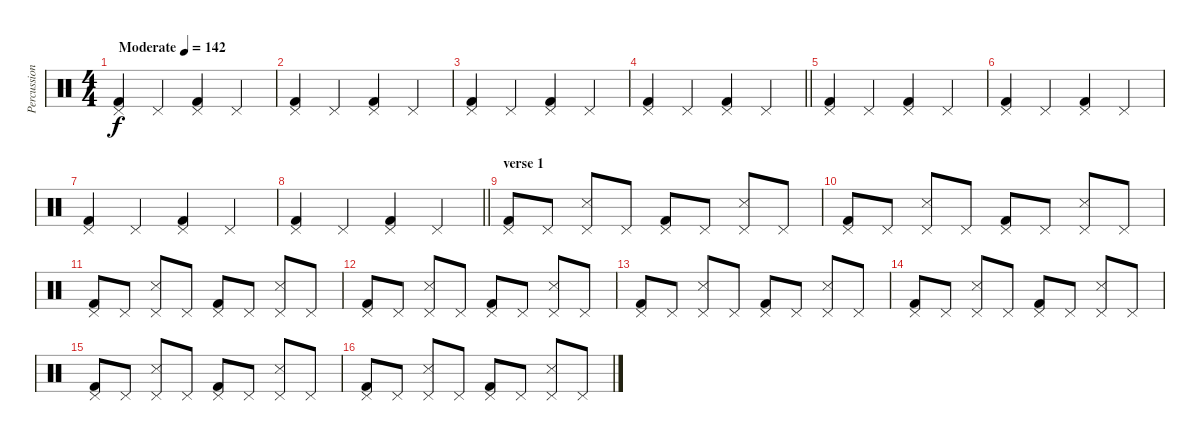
\track ("Percussions" "Percussion") {instrument percussion}
\staff {score}
\articulation defaults
\ts (4 4)
\tempo (142 "Moderate")
\clef neutral
\ks c
("Pedal Hi-Hat (hit)" "Kick (hit) 2").4{dy f} "Pedal Hi-Hat (hit)".4 ("Pedal Hi-Hat (hit)" "Kick (hit) 2").4 "Pedal Hi-Hat (hit)".4 |
("Pedal Hi-Hat (hit)" "Kick (hit) 2").4 "Pedal Hi-Hat (hit)".4 ("Pedal Hi-Hat (hit)" "Kick (hit) 2").4 "Pedal Hi-Hat (hit)".4 |
("Pedal Hi-Hat (hit)" "Kick (hit) 2").4 "Pedal Hi-Hat (hit)".4 ("Pedal Hi-Hat (hit)" "Kick (hit) 2").4 "Pedal Hi-Hat (hit)".4 |
\barLineRight lightlight
("Pedal Hi-Hat (hit)" "Kick (hit) 2").4 "Pedal Hi-Hat (hit)".4 ("Pedal Hi-Hat (hit)" "Kick (hit) 2").4 "Pedal Hi-Hat (hit)".4 |
("Pedal Hi-Hat (hit)" "Kick (hit) 2").4 "Pedal Hi-Hat (hit)".4 ("Pedal Hi-Hat (hit)" "Kick (hit) 2").4 "Pedal Hi-Hat (hit)".4 |
("Pedal Hi-Hat (hit)" "Kick (hit) 2").4 "Pedal Hi-Hat (hit)".4 ("Pedal Hi-Hat (hit)" "Kick (hit) 2").4 "Pedal Hi-Hat (hit)".4 |
("Pedal Hi-Hat (hit)" "Kick (hit) 2").4 "Pedal Hi-Hat (hit)".4 ("Pedal Hi-Hat (hit)" "Kick (hit) 2").4 "Pedal Hi-Hat (hit)".4 |
\barLineRight lightlight
("Pedal Hi-Hat (hit)" "Kick (hit) 2").4 "Pedal Hi-Hat (hit)".4 ("Pedal Hi-Hat (hit)" "Kick (hit) 2").4 "Pedal Hi-Hat (hit)".4 |
\section ("" "verse 1")
("Pedal Hi-Hat (hit)" "Kick (hit) 2").8 "Pedal Hi-Hat (hit)".8 ("Pedal Hi-Hat (hit)" "Snare (side stick) 3").8 "Pedal Hi-Hat (hit)".8 ("Pedal Hi-Hat (hit)" "Kick (hit) 2").8 "Pedal Hi-Hat (hit)".8 ("Pedal Hi-Hat (hit)" "Snare (side stick) 3").8 "Pedal Hi-Hat (hit)".8 |
("Pedal Hi-Hat (hit)" "Kick (hit) 2").8 "Pedal Hi-Hat (hit)".8 ("Pedal Hi-Hat (hit)" "Snare (side stick) 3").8 "Pedal Hi-Hat (hit)".8 ("Pedal Hi-Hat (hit)" "Kick (hit) 2").8 "Pedal Hi-Hat (hit)".8 ("Pedal Hi-Hat (hit)" "Snare (side stick) 3").8 "Pedal Hi-Hat (hit)".8 |
("Pedal Hi-Hat (hit)" "Kick (hit) 2").8 "Pedal Hi-Hat (hit)".8 ("Pedal Hi-Hat (hit)" "Snare (side stick) 3").8 "Pedal Hi-Hat (hit)".8 ("Pedal Hi-Hat (hit)" "Kick (hit) 2").8 "Pedal Hi-Hat (hit)".8 ("Pedal Hi-Hat (hit)" "Snare (side stick) 3").8 "Pedal Hi-Hat (hit)".8 |
("Pedal Hi-Hat (hit)" "Kick (hit) 2").8 "Pedal Hi-Hat (hit)".8 ("Pedal Hi-Hat (hit)" "Snare (side stick) 3").8 "Pedal Hi-Hat (hit)".8 ("Pedal Hi-Hat (hit)" "Kick (hit) 2").8 "Pedal Hi-Hat (hit)".8 ("Pedal Hi-Hat (hit)" "Snare (side stick) 3").8 "Pedal Hi-Hat (hit)".8 |
("Pedal Hi-Hat (hit)" "Kick (hit) 2").8 "Pedal Hi-Hat (hit)".8 ("Pedal Hi-Hat (hit)" "Snare (side stick) 3").8 "Pedal Hi-Hat (hit)".8 ("Pedal Hi-Hat (hit)" "Kick (hit) 2").8 "Pedal Hi-Hat (hit)".8 ("Pedal Hi-Hat (hit)" "Snare (side stick) 3").8 "Pedal Hi-Hat (hit)".8 |
("Pedal Hi-Hat (hit)" "Kick (hit) 2").8 "Pedal Hi-Hat (hit)".8 ("Pedal Hi-Hat (hit)" "Snare (side stick) 3").8 "Pedal Hi-Hat (hit)".8 ("Pedal Hi-Hat (hit)" "Kick (hit) 2").8 "Pedal Hi-Hat (hit)".8 ("Pedal Hi-Hat (hit)" "Snare (side stick) 3").8 "Pedal Hi-Hat (hit)".8 |
("Pedal Hi-Hat (hit)" "Kick (hit) 2").8 "Pedal Hi-Hat (hit)".8 ("Pedal Hi-Hat (hit)" "Snare (side stick) 3").8 "Pedal Hi-Hat (hit)".8 ("Pedal Hi-Hat (hit)" "Kick (hit) 2").8 "Pedal Hi-Hat (hit)".8 ("Pedal Hi-Hat (hit)" "Snare (side stick) 3").8 "Pedal Hi-Hat (hit)".8 |
("Pedal Hi-Hat (hit)" "Kick (hit) 2").8 "Pedal Hi-Hat (hit)".8 ("Pedal Hi-Hat (hit)" "Snare (side stick) 3").8 "Pedal Hi-Hat (hit)".8 ("Pedal Hi-Hat (hit)" "Kick (hit) 2").8 "Pedal Hi-Hat (hit)".8 ("Pedal Hi-Hat (hit)" "Snare (side stick) 3").8 "Pedal Hi-Hat (hit)".8
